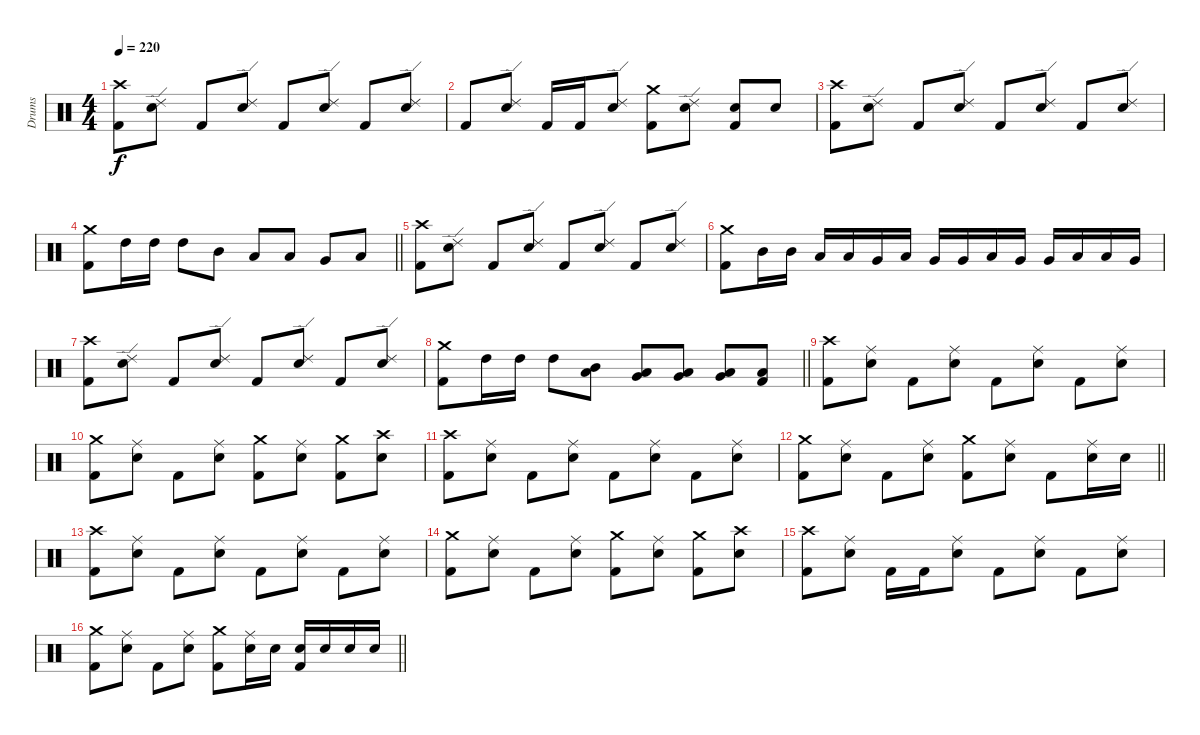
\track ("Drums" "Drums") {instrument percussion}
\staff {score}
\articulation defaults
\ts (4 4)
\section ("" "")
\tempo 220
\clef neutral
\ks c
("Kick (hit) 2" "Crash high (hit)").8{dy f} ("Snare (hit) 2" "Ride (edge) 2").8 "Kick (hit) 2".8 ("Snare (hit) 2" "Ride (edge) 2").8 "Kick (hit) 2".8 ("Snare (hit) 2" "Ride (edge) 2").8 "Kick (hit) 2".8 ("Snare (hit) 2" "Ride (edge) 2").8 |
"Kick (hit) 2".8 ("Snare (hit) 2" "Ride (edge) 2").8 "Kick (hit) 2".16 "Kick (hit) 2".16 ("Snare (hit) 2" "Ride (edge) 2").8 ("Kick (hit) 2" "Crash medium (hit)").8 ("Snare (hit) 2" "Ride (edge) 2").8 ("Kick (hit) 2" "Snare (hit) 2").8 "Snare (hit) 2".8 |
("Kick (hit) 2" "Crash high (hit)").8 ("Snare (hit) 2" "Ride (edge) 2").8 "Kick (hit) 2".8 ("Snare (hit) 2" "Ride (edge) 2").8 "Kick (hit) 2".8 ("Snare (hit) 2" "Ride (edge) 2").8 "Kick (hit) 2".8 ("Snare (hit) 2" "Ride (edge) 2").8 |
\barLineRight lightlight
("Kick (hit) 2" "Crash medium (hit)").8 "High Tom (hit)".16 "High Tom (hit)".16 "High Tom (hit)".8 "Mid Tom (hit)".8 "Low Tom (hit)".8 "Low Tom (hit)".8 "Very Low Tom (hit)".8 "Low Floor Tom (hit)".8 |
\section ("" "")
("Kick (hit) 2" "Crash high (hit)").8 ("Snare (hit) 2" "Ride (edge) 2").8 "Kick (hit) 2".8 ("Snare (hit) 2" "Ride (edge) 2").8 "Kick (hit) 2".8 ("Snare (hit) 2" "Ride (edge) 2").8 "Kick (hit) 2".8 ("Snare (hit) 2" "Ride (edge) 2").8 |
("Kick (hit) 2" "Crash medium (hit)").8 "Mid Tom (hit)".16 "Mid Tom (hit)".16 "Low Tom (hit)".16 "Low Tom (hit)".16 "Very Low Tom (hit)".16 "Low Tom (hit)".16 "Very Low Tom (hit)".16 "Very Low Tom (hit)".16 "Low Floor Tom (hit)".16 "Very Low Tom (hit)".16 "Very Low Tom (hit)".16 "Low Floor Tom (hit)".16 "Low Floor Tom (hit)".16 "Very Low Tom (hit)".16 |
("Kick (hit) 2" "Crash high (hit)").8 ("Snare (hit) 2" "Ride (edge) 2").8 "Kick (hit) 2".8 ("Snare (hit) 2" "Ride (edge) 2").8 "Kick (hit) 2".8 ("Snare (hit) 2" "Ride (edge) 2").8 "Kick (hit) 2".8 ("Snare (hit) 2" "Ride (edge) 2").8 |
\barLineRight lightlight
("Kick (hit) 2" "Crash medium (hit)").8 "High Tom (hit)".16 "High Tom (hit)".16 "High Tom (hit)".8 ("Mid Tom (hit)" "Low Tom (hit)").8 ("Low Tom (hit)" "Very Low Tom (hit)").8 ("Low Tom (hit)" "Very Low Tom (hit)").8 ("Very Low Tom (hit)" "Low Floor Tom (hit)").8 ("Kick (hit) 2" "Low Floor Tom (hit)").8 |
\section ("" "")
("Kick (hit) 2" "Crash high (hit)").8 ("Snare (hit) 2" "Ride (middle)").8 "Kick (hit) 2".8 ("Snare (hit) 2" "Ride (middle)").8 "Kick (hit) 2".8 ("Snare (hit) 2" "Ride (middle)").8 "Kick (hit) 2".8 ("Snare (hit) 2" "Ride (middle)").8 |
("Kick (hit) 2" "Crash medium (hit)").8 ("Snare (hit) 2" "Ride (middle)").8 "Kick (hit) 2".8 ("Snare (hit) 2" "Ride (middle)").8 ("Kick (hit) 2" "Crash medium (hit)").8 ("Snare (hit) 2" "Ride (middle)").8 ("Kick (hit) 2" "Crash medium (hit)").8 ("Snare (hit) 2" "Crash high (hit)").8 |
("Kick (hit) 2" "Crash high (hit)").8 ("Snare (hit) 2" "Ride (middle)").8 "Kick (hit) 2".8 ("Snare (hit) 2" "Ride (middle)").8 "Kick (hit) 2".8 ("Snare (hit) 2" "Ride (middle)").8 "Kick (hit) 2".8 ("Snare (hit) 2" "Ride (middle)").8 |
\barLineRight lightlight
("Kick (hit) 2" "Crash medium (hit)").8 ("Snare (hit) 2" "Ride (middle)").8 "Kick (hit) 2".8 ("Snare (hit) 2" "Ride (middle)").8 ("Kick (hit) 2" "Crash medium (hit)").8 ("Snare (hit) 2" "Ride (middle)").8 "Kick (hit) 2".8 ("Snare (hit) 2" "Ride (middle)").16 "Snare (hit) 2".16 |
\section ("" "")
("Kick (hit) 2" "Crash high (hit)").8 ("Snare (hit) 2" "Ride (middle)").8 "Kick (hit) 2".8 ("Snare (hit) 2" "Ride (middle)").8 "Kick (hit) 2".8 ("Snare (hit) 2" "Ride (middle)").8 "Kick (hit) 2".8 ("Snare (hit) 2" "Ride (middle)").8 |
("Kick (hit) 2" "Crash medium (hit)").8 ("Snare (hit) 2" "Ride (middle)").8 "Kick (hit) 2".8 ("Snare (hit) 2" "Ride (middle)").8 ("Kick (hit) 2" "Crash medium (hit)").8 ("Snare (hit) 2" "Ride (middle)").8 ("Kick (hit) 2" "Crash medium (hit)").8 ("Snare (hit) 2" "Crash high (hit)").8 |
("Kick (hit) 2" "Crash high (hit)").8 ("Snare (hit) 2" "Ride (middle)").8 "Kick (hit) 2".16 "Kick (hit) 2".16 ("Snare (hit) 2" "Ride (middle)").8 "Kick (hit) 2".8 ("Snare (hit) 2" "Ride (middle)").8 "Kick (hit) 2".8 ("Snare (hit) 2" "Ride (middle)").8 |
\barLineRight lightlight
("Kick (hit) 2" "Crash medium (hit)").8 ("Snare (hit) 2" "Ride (middle)").8 "Kick (hit) 2".8 ("Snare (hit) 2" "Ride (middle)").8 ("Kick (hit) 2" "Crash medium (hit)").8 ("Snare (hit) 2" "Ride (middle)").16 "Snare (hit) 2".16 ("Kick (hit) 2" "Snare (hit) 2").16 "Snare (hit) 2".16 "Snare (hit) 2".16 "Snare (hit) 2".16
